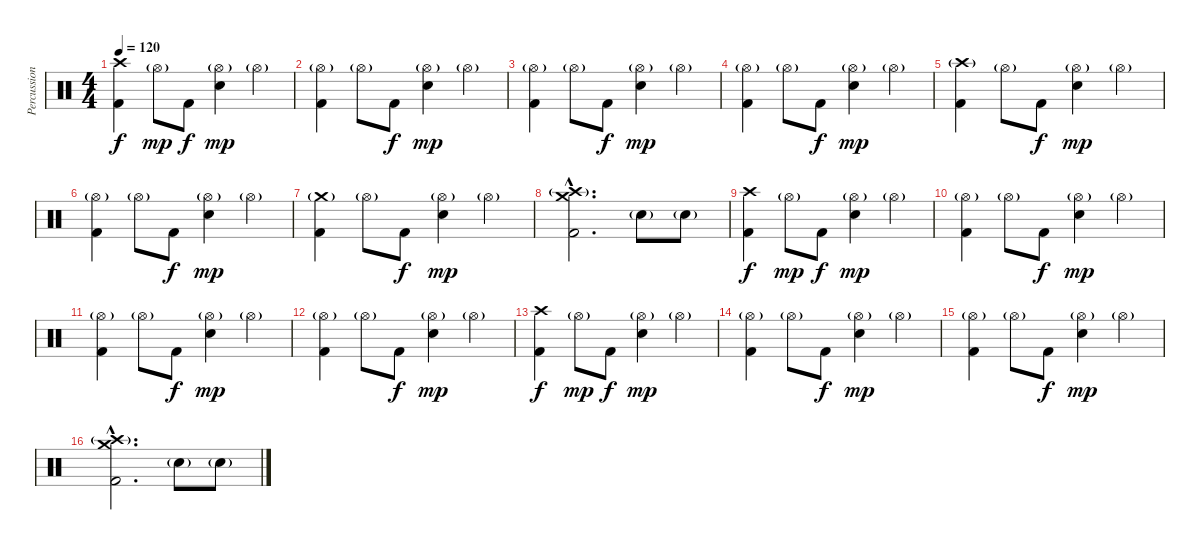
\track ("Percussioni" "Percussion") {instrument percussion}
\staff {score}
\articulation defaults
\ts (4 4)
\tempo 120
\clef neutral
\ks c
("Crash high (hit)" "Kick (hit) 2").4{dy f} "Hi-Hat (open)"{g}.8{dy mp} "Kick (hit) 2".8{dy f} ("Hi-Hat (open)"{g} "Electric Snare (hit)").4{dy mp} "Hi-Hat (open)"{g}.4 |
("Hi-Hat (open)"{g} "Kick (hit) 2").4 "Hi-Hat (open)"{g}.8 "Kick (hit) 2".8{dy f} ("Hi-Hat (open)"{g} "Electric Snare (hit)").4{dy mp} "Hi-Hat (open)"{g}.4 |
("Hi-Hat (open)"{g} "Kick (hit) 2").4 "Hi-Hat (open)"{g}.8 "Kick (hit) 2".8{dy f} ("Hi-Hat (open)"{g} "Electric Snare (hit)").4{dy mp} "Hi-Hat (open)"{g}.4 |
("Hi-Hat (open)"{g} "Kick (hit) 2").4 "Hi-Hat (open)"{g}.8 "Kick (hit) 2".8{dy f} ("Hi-Hat (open)"{g} "Electric Snare (hit)").4{dy mp} "Hi-Hat (open)"{g}.4 |
("Crash high (hit)"{g} "Kick (hit) 2").4 "Hi-Hat (open)"{g}.8 "Kick (hit) 2".8{dy f} ("Hi-Hat (open)"{g} "Electric Snare (hit)").4{dy mp} "Hi-Hat (open)"{g}.4 |
("Hi-Hat (open)"{g} "Kick (hit) 2").4 "Hi-Hat (open)"{g}.8 "Kick (hit) 2".8{dy f} ("Hi-Hat (open)"{g} "Electric Snare (hit)").4{dy mp} "Hi-Hat (open)"{g}.4 |
("Crash medium (hit)"{g} "Kick (hit) 2").4 "Hi-Hat (open)"{g}.8 "Kick (hit) 2".8{dy f} ("Hi-Hat (open)"{g} "Electric Snare (hit)").4{dy mp} "Hi-Hat (open)"{g}.4 |
("Crash medium (hit)"{hac} "Crash high (hit)"{g hac} "Kick (hit) 2"{hac}).2{d} "Electric Snare (hit)"{g}.8 "Electric Snare (hit)"{g}.8 |
("Crash high (hit)" "Kick (hit) 2").4{dy f} "Hi-Hat (open)"{g}.8{dy mp} "Kick (hit) 2".8{dy f} ("Hi-Hat (open)"{g} "Electric Snare (hit)").4{dy mp} "Hi-Hat (open)"{g}.4 |
("Hi-Hat (open)"{g} "Kick (hit) 2").4 "Hi-Hat (open)"{g}.8 "Kick (hit) 2".8{dy f} ("Hi-Hat (open)"{g} "Electric Snare (hit)").4{dy mp} "Hi-Hat (open)"{g}.4 |
("Hi-Hat (open)"{g} "Kick (hit) 2").4 "Hi-Hat (open)"{g}.8 "Kick (hit) 2".8{dy f} ("Hi-Hat (open)"{g} "Electric Snare (hit)").4{dy mp} "Hi-Hat (open)"{g}.4 |
("Hi-Hat (open)"{g} "Kick (hit) 2").4 "Hi-Hat (open)"{g}.8 "Kick (hit) 2".8{dy f} ("Hi-Hat (open)"{g} "Electric Snare (hit)").4{dy mp} "Hi-Hat (open)"{g}.4 |
("Crash high (hit)" "Kick (hit) 2").4{dy f} "Hi-Hat (open)"{g}.8{dy mp} "Kick (hit) 2".8{dy f} ("Hi-Hat (open)"{g} "Electric Snare (hit)").4{dy mp} "Hi-Hat (open)"{g}.4 |
("Hi-Hat (open)"{g} "Kick (hit) 2").4 "Hi-Hat (open)"{g}.8 "Kick (hit) 2".8{dy f} ("Hi-Hat (open)"{g} "Electric Snare (hit)").4{dy mp} "Hi-Hat (open)"{g}.4 |
("Hi-Hat (open)"{g} "Kick (hit) 2").4 "Hi-Hat (open)"{g}.8 "Kick (hit) 2".8{dy f} ("Hi-Hat (open)"{g} "Electric Snare (hit)").4{dy mp} "Hi-Hat (open)"{g}.4 |
("Crash medium (hit)"{hac} "Crash high (hit)"{g hac} "Kick (hit) 2"{hac}).2{d} "Electric Snare (hit)"{g}.8 "Electric Snare (hit)"{g}.8
